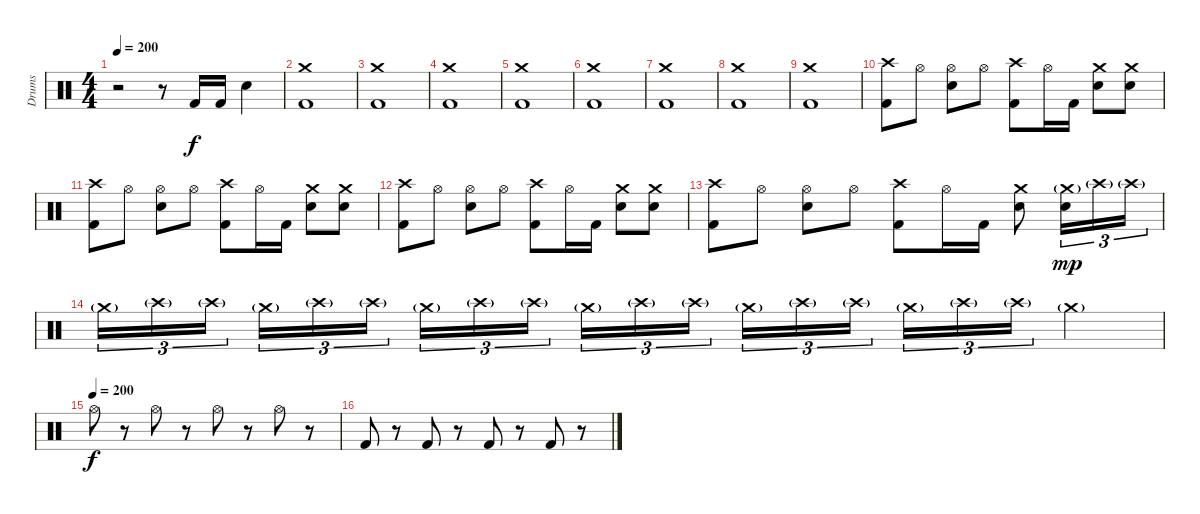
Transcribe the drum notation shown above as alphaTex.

\track ("Drums" "Drums") {instrument percussion}
\staff {score}
\articulation defaults
\ts (4 4)
\tempo 200
\tempo 120
\tempo 200
\clef neutral
\ks c
r.2{dy f} r.8 "Kick (hit) 2".16 "Kick (hit) 2".16 "Electric Snare (hit)".4 |
("Crash medium (hit)" "Kick (hit) 2").1 |
("Crash medium (hit)" "Kick (hit) 2").1 |
("Crash medium (hit)" "Kick (hit) 2").1 |
("Crash medium (hit)" "Kick (hit) 2").1 |
("Crash medium (hit)" "Kick (hit) 2").1 |
("Crash medium (hit)" "Kick (hit) 2").1 |
("Crash medium (hit)" "Kick (hit) 2").1 |
("Crash medium (hit)" "Kick (hit) 2").1 |
("Crash high (hit)" "Kick (hit) 2").8 "Hi-Hat (open)".8 ("Hi-Hat (open)" "Electric Snare (hit)").8 "Hi-Hat (open)".8 ("Crash high (hit)" "Kick (hit) 2").8 "Hi-Hat (open)".16 "Kick (hit) 2".16 ("Crash medium (hit)" "Electric Snare (hit)").8 ("Crash medium (hit)" "Electric Snare (hit)").8 |
("Crash high (hit)" "Kick (hit) 2").8 "Hi-Hat (open)".8 ("Hi-Hat (open)" "Electric Snare (hit)").8 "Hi-Hat (open)".8 ("Crash high (hit)" "Kick (hit) 2").8 "Hi-Hat (open)".16 "Kick (hit) 2".16 ("Crash medium (hit)" "Electric Snare (hit)").8 ("Crash medium (hit)" "Electric Snare (hit)").8 |
("Crash high (hit)" "Kick (hit) 2").8 "Hi-Hat (open)".8 ("Hi-Hat (open)" "Electric Snare (hit)").8 "Hi-Hat (open)".8 ("Crash high (hit)" "Kick (hit) 2").8 "Hi-Hat (open)".16 "Kick (hit) 2".16 ("Crash medium (hit)" "Electric Snare (hit)").8 ("Crash medium (hit)" "Electric Snare (hit)").8 |
("Crash high (hit)" "Kick (hit) 2").8 "Hi-Hat (open)".8 ("Hi-Hat (open)" "Electric Snare (hit)").8 "Hi-Hat (open)".8 ("Crash high (hit)" "Kick (hit) 2").8 "Hi-Hat (open)".16 "Kick (hit) 2".16 ("Crash medium (hit)" "Electric Snare (hit)").8 ("Crash medium (hit)"{g} "Electric Snare (hit)").16{tu (3 2) dy mp} "Crash high (hit)"{g}.16{tu (3 2)} "Crash high (hit)"{g}.16{tu (3 2)} |
"Crash medium (hit)"{g}.16{tu (3 2)} "Crash high (hit)"{g}.16{tu (3 2)} "Crash high (hit)"{g}.16{tu (3 2)} "Crash medium (hit)"{g}.16{tu (3 2)} "Crash high (hit)"{g}.16{tu (3 2)} "Crash high (hit)"{g}.16{tu (3 2)} "Crash medium (hit)"{g}.16{tu (3 2)} "Crash high (hit)"{g}.16{tu (3 2)} "Crash high (hit)"{g}.16{tu (3 2)} "Crash medium (hit)"{g}.16{tu (3 2)} "Crash high (hit)"{g}.16{tu (3 2)} "Crash high (hit)"{g}.16{tu (3 2)} "Crash medium (hit)"{g}.16{tu (3 2)} "Crash high (hit)"{g}.16{tu (3 2)} "Crash high (hit)"{g}.16{tu (3 2)} "Crash medium (hit)"{g}.16{tu (3 2)} "Crash high (hit)"{g}.16{tu (3 2)} "Crash high (hit)"{g}.16{tu (3 2)} "Crash medium (hit)"{g}.4 |
\tempo (200)
"Hi-Hat (open)".8{dy f} r.8 "Hi-Hat (open)".8 r.8 "Hi-Hat (open)".8 r.8 "Hi-Hat (open)".8 r.8 |
"Kick (hit) 2".8 r.8 "Kick (hit) 2".8 r.8 "Kick (hit) 2".8 r.8 "Kick (hit) 2".8 r.8
